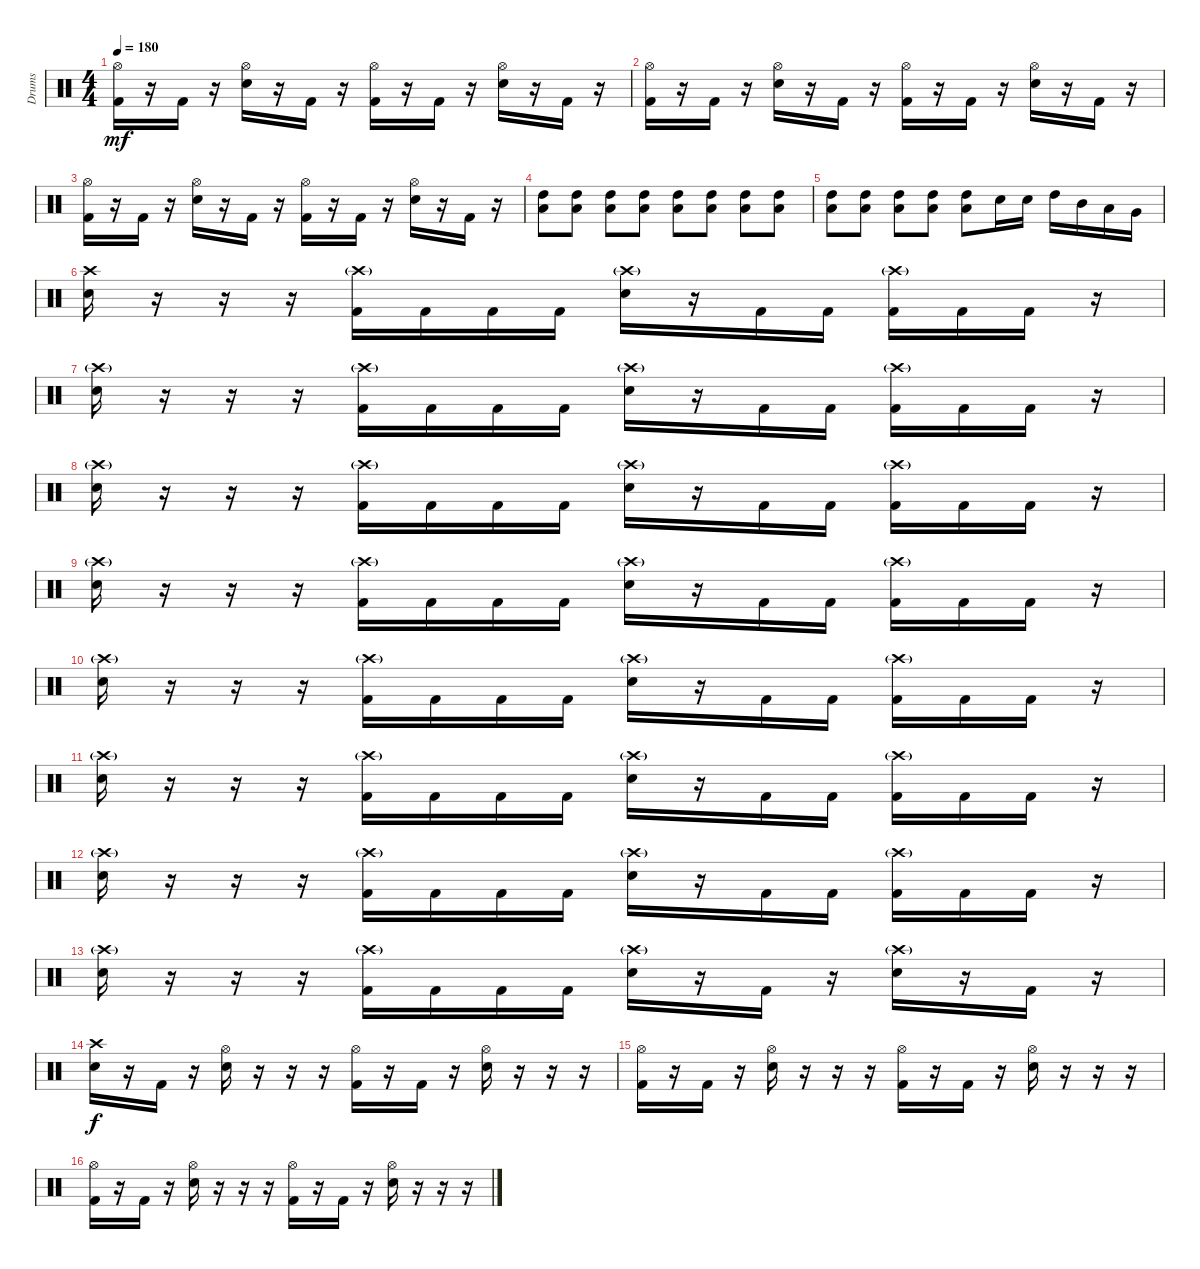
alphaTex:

\track ("Drums" "Drums") {instrument percussion}
\staff {score}
\articulation defaults
\ts (4 4)
\tempo 180
\clef neutral
\ks c
("Hi-Hat (open)" "Kick (hit) 2").16{dy mf} r.16 "Kick (hit) 2".16 r.16 ("Hi-Hat (open)" "Snare (hit) 2").16 r.16 "Kick (hit) 2".16 r.16 ("Hi-Hat (open)" "Kick (hit) 2").16 r.16 "Kick (hit) 2".16 r.16 ("Hi-Hat (open)" "Snare (hit) 2").16 r.16 "Kick (hit) 2".16 r.16 |
("Hi-Hat (open)" "Kick (hit) 2").16 r.16 "Kick (hit) 2".16 r.16 ("Hi-Hat (open)" "Snare (hit) 2").16 r.16 "Kick (hit) 2".16 r.16 ("Hi-Hat (open)" "Kick (hit) 2").16 r.16 "Kick (hit) 2".16 r.16 ("Hi-Hat (open)" "Snare (hit) 2").16 r.16 "Kick (hit) 2".16 r.16 |
("Hi-Hat (open)" "Kick (hit) 2").16 r.16 "Kick (hit) 2".16 r.16 ("Hi-Hat (open)" "Snare (hit) 2").16 r.16 "Kick (hit) 2".16 r.16 ("Hi-Hat (open)" "Kick (hit) 2").16 r.16 "Kick (hit) 2".16 r.16 ("Hi-Hat (open)" "Snare (hit) 2").16 r.16 "Kick (hit) 2".16 r.16 |
("High Tom (hit)" "Low Tom (hit)").8 ("High Tom (hit)" "Low Tom (hit)").8 ("High Tom (hit)" "Low Tom (hit)").8 ("High Tom (hit)" "Low Tom (hit)").8 ("High Tom (hit)" "Low Tom (hit)").8 ("High Tom (hit)" "Low Tom (hit)").8 ("High Tom (hit)" "Low Tom (hit)").8 ("High Tom (hit)" "Low Tom (hit)").8 |
("High Tom (hit)" "Low Tom (hit)").8 ("High Tom (hit)" "Low Tom (hit)").8 ("High Tom (hit)" "Low Tom (hit)").8 ("High Tom (hit)" "Low Tom (hit)").8 ("High Tom (hit)" "Low Tom (hit)").8 "Snare (hit) 2".16 "Snare (hit) 2".16 "High Tom (hit)".16 "Mid Tom (hit)".16 "Low Tom (hit)".16 "Very Low Tom (hit)".16 |
("Crash high (hit)" "Snare (hit) 2").16 r.16 r.16 r.16 ("Crash high (hit)"{g} "Kick (hit) 2").16 "Kick (hit) 2".16 "Kick (hit) 2".16 "Kick (hit) 2".16 ("Crash high (hit)"{g} "Snare (hit) 2").16 r.16 "Kick (hit) 2".16 "Kick (hit) 2".16 ("Crash high (hit)"{g} "Kick (hit) 2").16 "Kick (hit) 2".16 "Kick (hit) 2".16 r.16 |
("Crash high (hit)"{g} "Snare (hit) 2").16 r.16 r.16 r.16 ("Crash high (hit)"{g} "Kick (hit) 2").16 "Kick (hit) 2".16 "Kick (hit) 2".16 "Kick (hit) 2".16 ("Crash high (hit)"{g} "Snare (hit) 2").16 r.16 "Kick (hit) 2".16 "Kick (hit) 2".16 ("Crash high (hit)"{g} "Kick (hit) 2").16 "Kick (hit) 2".16 "Kick (hit) 2".16 r.16 |
("Crash high (hit)"{g} "Snare (hit) 2").16 r.16 r.16 r.16 ("Crash high (hit)"{g} "Kick (hit) 2").16 "Kick (hit) 2".16 "Kick (hit) 2".16 "Kick (hit) 2".16 ("Crash high (hit)"{g} "Snare (hit) 2").16 r.16 "Kick (hit) 2".16 "Kick (hit) 2".16 ("Crash high (hit)"{g} "Kick (hit) 2").16 "Kick (hit) 2".16 "Kick (hit) 2".16 r.16 |
("Crash high (hit)"{g} "Snare (hit) 2").16 r.16 r.16 r.16 ("Crash high (hit)"{g} "Kick (hit) 2").16 "Kick (hit) 2".16 "Kick (hit) 2".16 "Kick (hit) 2".16 ("Crash high (hit)"{g} "Snare (hit) 2").16 r.16 "Kick (hit) 2".16 "Kick (hit) 2".16 ("Crash high (hit)"{g} "Kick (hit) 2").16 "Kick (hit) 2".16 "Kick (hit) 2".16 r.16 |
("Crash high (hit)"{g} "Snare (hit) 2").16 r.16 r.16 r.16 ("Crash high (hit)"{g} "Kick (hit) 2").16 "Kick (hit) 2".16 "Kick (hit) 2".16 "Kick (hit) 2".16 ("Crash high (hit)"{g} "Snare (hit) 2").16 r.16 "Kick (hit) 2".16 "Kick (hit) 2".16 ("Crash high (hit)"{g} "Kick (hit) 2").16 "Kick (hit) 2".16 "Kick (hit) 2".16 r.16 |
("Crash high (hit)"{g} "Snare (hit) 2").16 r.16 r.16 r.16 ("Crash high (hit)"{g} "Kick (hit) 2").16 "Kick (hit) 2".16 "Kick (hit) 2".16 "Kick (hit) 2".16 ("Crash high (hit)"{g} "Snare (hit) 2").16 r.16 "Kick (hit) 2".16 "Kick (hit) 2".16 ("Crash high (hit)"{g} "Kick (hit) 2").16 "Kick (hit) 2".16 "Kick (hit) 2".16 r.16 |
("Crash high (hit)"{g} "Snare (hit) 2").16 r.16 r.16 r.16 ("Crash high (hit)"{g} "Kick (hit) 2").16 "Kick (hit) 2".16 "Kick (hit) 2".16 "Kick (hit) 2".16 ("Crash high (hit)"{g} "Snare (hit) 2").16 r.16 "Kick (hit) 2".16 "Kick (hit) 2".16 ("Crash high (hit)"{g} "Kick (hit) 2").16 "Kick (hit) 2".16 "Kick (hit) 2".16 r.16 |
("Crash high (hit)"{g} "Snare (hit) 2").16 r.16 r.16 r.16 ("Crash high (hit)"{g} "Kick (hit) 2").16 "Kick (hit) 2".16 "Kick (hit) 2".16 "Kick (hit) 2".16 ("Crash high (hit)"{g} "Snare (hit) 2").16 r.16 "Kick (hit) 2".16 r.16 ("Crash high (hit)"{g} "Snare (hit) 2").16 r.16 "Kick (hit) 2".16 r.16 |
("Crash high (hit)" "Snare (hit) 2").16{dy f} r.16 "Kick (hit) 2".16 r.16 ("Hi-Hat (open)" "Snare (hit) 2").16 r.16 r.16 r.16 ("Hi-Hat (open)" "Kick (hit) 2").16 r.16 "Kick (hit) 2".16 r.16 ("Hi-Hat (open)" "Snare (hit) 2").16 r.16 r.16 r.16 |
("Hi-Hat (open)" "Kick (hit) 2").16 r.16 "Kick (hit) 2".16 r.16 ("Hi-Hat (open)" "Snare (hit) 2").16 r.16 r.16 r.16 ("Hi-Hat (open)" "Kick (hit) 2").16 r.16 "Kick (hit) 2".16 r.16 ("Hi-Hat (open)" "Snare (hit) 2").16 r.16 r.16 r.16 |
("Hi-Hat (open)" "Kick (hit) 2").16 r.16 "Kick (hit) 2".16 r.16 ("Hi-Hat (open)" "Snare (hit) 2").16 r.16 r.16 r.16 ("Hi-Hat (open)" "Kick (hit) 2").16 r.16 "Kick (hit) 2".16 r.16 ("Hi-Hat (open)" "Snare (hit) 2").16 r.16 r.16 r.16
